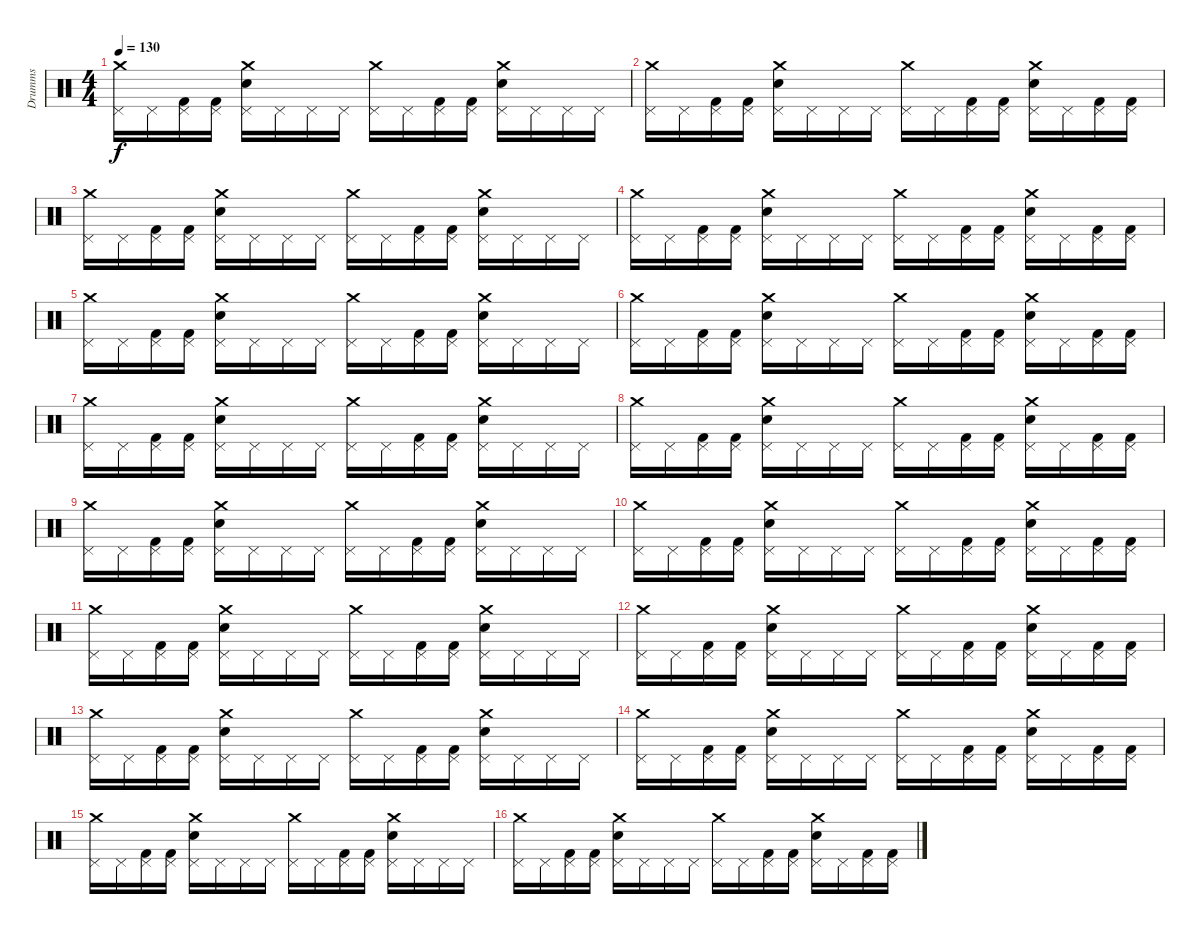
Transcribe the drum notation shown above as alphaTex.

\track ("Drumms" "Drumms") {instrument percussion}
\staff {score}
\articulation defaults
\ts (4 4)
\tempo 130
\clef neutral
\ks c
("Crash medium (hit)" "Pedal Hi-Hat (hit)").16{dy f} "Pedal Hi-Hat (hit)".16 ("Kick (hit) 2" "Pedal Hi-Hat (hit)").16 ("Kick (hit) 2" "Pedal Hi-Hat (hit)").16 ("Crash medium (hit)" "Electric Snare (hit)" "Pedal Hi-Hat (hit)").16 "Pedal Hi-Hat (hit)".16 "Pedal Hi-Hat (hit)".16 "Pedal Hi-Hat (hit)".16 ("Crash medium (hit)" "Pedal Hi-Hat (hit)").16 "Pedal Hi-Hat (hit)".16 ("Kick (hit) 2" "Pedal Hi-Hat (hit)").16 ("Kick (hit) 2" "Pedal Hi-Hat (hit)").16 ("Crash medium (hit)" "Electric Snare (hit)" "Pedal Hi-Hat (hit)").16 "Pedal Hi-Hat (hit)".16 "Pedal Hi-Hat (hit)".16 "Pedal Hi-Hat (hit)".16 |
("Crash medium (hit)" "Pedal Hi-Hat (hit)").16 "Pedal Hi-Hat (hit)".16 ("Kick (hit) 2" "Pedal Hi-Hat (hit)").16 ("Kick (hit) 2" "Pedal Hi-Hat (hit)").16 ("Crash medium (hit)" "Electric Snare (hit)" "Pedal Hi-Hat (hit)").16 "Pedal Hi-Hat (hit)".16 "Pedal Hi-Hat (hit)".16 "Pedal Hi-Hat (hit)".16 ("Crash medium (hit)" "Pedal Hi-Hat (hit)").16 "Pedal Hi-Hat (hit)".16 ("Kick (hit) 2" "Pedal Hi-Hat (hit)").16 ("Kick (hit) 2" "Pedal Hi-Hat (hit)").16 ("Crash medium (hit)" "Electric Snare (hit)" "Pedal Hi-Hat (hit)").16 "Pedal Hi-Hat (hit)".16 ("Kick (hit) 2" "Pedal Hi-Hat (hit)").16 ("Kick (hit) 2" "Pedal Hi-Hat (hit)").16 |
("Crash medium (hit)" "Pedal Hi-Hat (hit)").16 "Pedal Hi-Hat (hit)".16 ("Kick (hit) 2" "Pedal Hi-Hat (hit)").16 ("Kick (hit) 2" "Pedal Hi-Hat (hit)").16 ("Crash medium (hit)" "Electric Snare (hit)" "Pedal Hi-Hat (hit)").16 "Pedal Hi-Hat (hit)".16 "Pedal Hi-Hat (hit)".16 "Pedal Hi-Hat (hit)".16 ("Crash medium (hit)" "Pedal Hi-Hat (hit)").16 "Pedal Hi-Hat (hit)".16 ("Kick (hit) 2" "Pedal Hi-Hat (hit)").16 ("Kick (hit) 2" "Pedal Hi-Hat (hit)").16 ("Crash medium (hit)" "Electric Snare (hit)" "Pedal Hi-Hat (hit)").16 "Pedal Hi-Hat (hit)".16 "Pedal Hi-Hat (hit)".16 "Pedal Hi-Hat (hit)".16 |
("Crash medium (hit)" "Pedal Hi-Hat (hit)").16 "Pedal Hi-Hat (hit)".16 ("Kick (hit) 2" "Pedal Hi-Hat (hit)").16 ("Kick (hit) 2" "Pedal Hi-Hat (hit)").16 ("Crash medium (hit)" "Electric Snare (hit)" "Pedal Hi-Hat (hit)").16 "Pedal Hi-Hat (hit)".16 "Pedal Hi-Hat (hit)".16 "Pedal Hi-Hat (hit)".16 ("Crash medium (hit)" "Pedal Hi-Hat (hit)").16 "Pedal Hi-Hat (hit)".16 ("Kick (hit) 2" "Pedal Hi-Hat (hit)").16 ("Kick (hit) 2" "Pedal Hi-Hat (hit)").16 ("Crash medium (hit)" "Electric Snare (hit)" "Pedal Hi-Hat (hit)").16 "Pedal Hi-Hat (hit)".16 ("Kick (hit) 2" "Pedal Hi-Hat (hit)").16 ("Kick (hit) 2" "Pedal Hi-Hat (hit)").16 |
("Crash medium (hit)" "Pedal Hi-Hat (hit)").16 "Pedal Hi-Hat (hit)".16 ("Kick (hit) 2" "Pedal Hi-Hat (hit)").16 ("Kick (hit) 2" "Pedal Hi-Hat (hit)").16 ("Crash medium (hit)" "Electric Snare (hit)" "Pedal Hi-Hat (hit)").16 "Pedal Hi-Hat (hit)".16 "Pedal Hi-Hat (hit)".16 "Pedal Hi-Hat (hit)".16 ("Crash medium (hit)" "Pedal Hi-Hat (hit)").16 "Pedal Hi-Hat (hit)".16 ("Kick (hit) 2" "Pedal Hi-Hat (hit)").16 ("Kick (hit) 2" "Pedal Hi-Hat (hit)").16 ("Crash medium (hit)" "Electric Snare (hit)" "Pedal Hi-Hat (hit)").16 "Pedal Hi-Hat (hit)".16 "Pedal Hi-Hat (hit)".16 "Pedal Hi-Hat (hit)".16 |
("Crash medium (hit)" "Pedal Hi-Hat (hit)").16 "Pedal Hi-Hat (hit)".16 ("Kick (hit) 2" "Pedal Hi-Hat (hit)").16 ("Kick (hit) 2" "Pedal Hi-Hat (hit)").16 ("Crash medium (hit)" "Electric Snare (hit)" "Pedal Hi-Hat (hit)").16 "Pedal Hi-Hat (hit)".16 "Pedal Hi-Hat (hit)".16 "Pedal Hi-Hat (hit)".16 ("Crash medium (hit)" "Pedal Hi-Hat (hit)").16 "Pedal Hi-Hat (hit)".16 ("Kick (hit) 2" "Pedal Hi-Hat (hit)").16 ("Kick (hit) 2" "Pedal Hi-Hat (hit)").16 ("Crash medium (hit)" "Electric Snare (hit)" "Pedal Hi-Hat (hit)").16 "Pedal Hi-Hat (hit)".16 ("Kick (hit) 2" "Pedal Hi-Hat (hit)").16 ("Kick (hit) 2" "Pedal Hi-Hat (hit)").16 |
("Crash medium (hit)" "Pedal Hi-Hat (hit)").16 "Pedal Hi-Hat (hit)".16 ("Kick (hit) 2" "Pedal Hi-Hat (hit)").16 ("Kick (hit) 2" "Pedal Hi-Hat (hit)").16 ("Crash medium (hit)" "Electric Snare (hit)" "Pedal Hi-Hat (hit)").16 "Pedal Hi-Hat (hit)".16 "Pedal Hi-Hat (hit)".16 "Pedal Hi-Hat (hit)".16 ("Crash medium (hit)" "Pedal Hi-Hat (hit)").16 "Pedal Hi-Hat (hit)".16 ("Kick (hit) 2" "Pedal Hi-Hat (hit)").16 ("Kick (hit) 2" "Pedal Hi-Hat (hit)").16 ("Crash medium (hit)" "Electric Snare (hit)" "Pedal Hi-Hat (hit)").16 "Pedal Hi-Hat (hit)".16 "Pedal Hi-Hat (hit)".16 "Pedal Hi-Hat (hit)".16 |
("Crash medium (hit)" "Pedal Hi-Hat (hit)").16 "Pedal Hi-Hat (hit)".16 ("Kick (hit) 2" "Pedal Hi-Hat (hit)").16 ("Kick (hit) 2" "Pedal Hi-Hat (hit)").16 ("Crash medium (hit)" "Electric Snare (hit)" "Pedal Hi-Hat (hit)").16 "Pedal Hi-Hat (hit)".16 "Pedal Hi-Hat (hit)".16 "Pedal Hi-Hat (hit)".16 ("Crash medium (hit)" "Pedal Hi-Hat (hit)").16 "Pedal Hi-Hat (hit)".16 ("Kick (hit) 2" "Pedal Hi-Hat (hit)").16 ("Kick (hit) 2" "Pedal Hi-Hat (hit)").16 ("Crash medium (hit)" "Electric Snare (hit)" "Pedal Hi-Hat (hit)").16 "Pedal Hi-Hat (hit)".16 ("Kick (hit) 2" "Pedal Hi-Hat (hit)").16 ("Kick (hit) 2" "Pedal Hi-Hat (hit)").16 |
("Crash medium (hit)" "Pedal Hi-Hat (hit)").16 "Pedal Hi-Hat (hit)".16 ("Kick (hit) 2" "Pedal Hi-Hat (hit)").16 ("Kick (hit) 2" "Pedal Hi-Hat (hit)").16 ("Crash medium (hit)" "Electric Snare (hit)" "Pedal Hi-Hat (hit)").16 "Pedal Hi-Hat (hit)".16 "Pedal Hi-Hat (hit)".16 "Pedal Hi-Hat (hit)".16 ("Crash medium (hit)" "Pedal Hi-Hat (hit)").16 "Pedal Hi-Hat (hit)".16 ("Kick (hit) 2" "Pedal Hi-Hat (hit)").16 ("Kick (hit) 2" "Pedal Hi-Hat (hit)").16 ("Crash medium (hit)" "Electric Snare (hit)" "Pedal Hi-Hat (hit)").16 "Pedal Hi-Hat (hit)".16 "Pedal Hi-Hat (hit)".16 "Pedal Hi-Hat (hit)".16 |
("Crash medium (hit)" "Pedal Hi-Hat (hit)").16 "Pedal Hi-Hat (hit)".16 ("Kick (hit) 2" "Pedal Hi-Hat (hit)").16 ("Kick (hit) 2" "Pedal Hi-Hat (hit)").16 ("Crash medium (hit)" "Electric Snare (hit)" "Pedal Hi-Hat (hit)").16 "Pedal Hi-Hat (hit)".16 "Pedal Hi-Hat (hit)".16 "Pedal Hi-Hat (hit)".16 ("Crash medium (hit)" "Pedal Hi-Hat (hit)").16 "Pedal Hi-Hat (hit)".16 ("Kick (hit) 2" "Pedal Hi-Hat (hit)").16 ("Kick (hit) 2" "Pedal Hi-Hat (hit)").16 ("Crash medium (hit)" "Electric Snare (hit)" "Pedal Hi-Hat (hit)").16 "Pedal Hi-Hat (hit)".16 ("Kick (hit) 2" "Pedal Hi-Hat (hit)").16 ("Kick (hit) 2" "Pedal Hi-Hat (hit)").16 |
("Crash medium (hit)" "Pedal Hi-Hat (hit)").16 "Pedal Hi-Hat (hit)".16 ("Kick (hit) 2" "Pedal Hi-Hat (hit)").16 ("Kick (hit) 2" "Pedal Hi-Hat (hit)").16 ("Crash medium (hit)" "Electric Snare (hit)" "Pedal Hi-Hat (hit)").16 "Pedal Hi-Hat (hit)".16 "Pedal Hi-Hat (hit)".16 "Pedal Hi-Hat (hit)".16 ("Crash medium (hit)" "Pedal Hi-Hat (hit)").16 "Pedal Hi-Hat (hit)".16 ("Kick (hit) 2" "Pedal Hi-Hat (hit)").16 ("Kick (hit) 2" "Pedal Hi-Hat (hit)").16 ("Crash medium (hit)" "Electric Snare (hit)" "Pedal Hi-Hat (hit)").16 "Pedal Hi-Hat (hit)".16 "Pedal Hi-Hat (hit)".16 "Pedal Hi-Hat (hit)".16 |
("Crash medium (hit)" "Pedal Hi-Hat (hit)").16 "Pedal Hi-Hat (hit)".16 ("Kick (hit) 2" "Pedal Hi-Hat (hit)").16 ("Kick (hit) 2" "Pedal Hi-Hat (hit)").16 ("Crash medium (hit)" "Electric Snare (hit)" "Pedal Hi-Hat (hit)").16 "Pedal Hi-Hat (hit)".16 "Pedal Hi-Hat (hit)".16 "Pedal Hi-Hat (hit)".16 ("Crash medium (hit)" "Pedal Hi-Hat (hit)").16 "Pedal Hi-Hat (hit)".16 ("Kick (hit) 2" "Pedal Hi-Hat (hit)").16 ("Kick (hit) 2" "Pedal Hi-Hat (hit)").16 ("Crash medium (hit)" "Electric Snare (hit)" "Pedal Hi-Hat (hit)").16 "Pedal Hi-Hat (hit)".16 ("Kick (hit) 2" "Pedal Hi-Hat (hit)").16 ("Kick (hit) 2" "Pedal Hi-Hat (hit)").16 |
("Crash medium (hit)" "Pedal Hi-Hat (hit)").16 "Pedal Hi-Hat (hit)".16 ("Kick (hit) 2" "Pedal Hi-Hat (hit)").16 ("Kick (hit) 2" "Pedal Hi-Hat (hit)").16 ("Crash medium (hit)" "Electric Snare (hit)" "Pedal Hi-Hat (hit)").16 "Pedal Hi-Hat (hit)".16 "Pedal Hi-Hat (hit)".16 "Pedal Hi-Hat (hit)".16 ("Crash medium (hit)" "Pedal Hi-Hat (hit)").16 "Pedal Hi-Hat (hit)".16 ("Kick (hit) 2" "Pedal Hi-Hat (hit)").16 ("Kick (hit) 2" "Pedal Hi-Hat (hit)").16 ("Crash medium (hit)" "Electric Snare (hit)" "Pedal Hi-Hat (hit)").16 "Pedal Hi-Hat (hit)".16 "Pedal Hi-Hat (hit)".16 "Pedal Hi-Hat (hit)".16 |
("Crash medium (hit)" "Pedal Hi-Hat (hit)").16 "Pedal Hi-Hat (hit)".16 ("Kick (hit) 2" "Pedal Hi-Hat (hit)").16 ("Kick (hit) 2" "Pedal Hi-Hat (hit)").16 ("Crash medium (hit)" "Electric Snare (hit)" "Pedal Hi-Hat (hit)").16 "Pedal Hi-Hat (hit)".16 "Pedal Hi-Hat (hit)".16 "Pedal Hi-Hat (hit)".16 ("Crash medium (hit)" "Pedal Hi-Hat (hit)").16 "Pedal Hi-Hat (hit)".16 ("Kick (hit) 2" "Pedal Hi-Hat (hit)").16 ("Kick (hit) 2" "Pedal Hi-Hat (hit)").16 ("Crash medium (hit)" "Electric Snare (hit)" "Pedal Hi-Hat (hit)").16 "Pedal Hi-Hat (hit)".16 ("Kick (hit) 2" "Pedal Hi-Hat (hit)").16 ("Kick (hit) 2" "Pedal Hi-Hat (hit)").16 |
("Crash medium (hit)" "Pedal Hi-Hat (hit)").16 "Pedal Hi-Hat (hit)".16 ("Kick (hit) 2" "Pedal Hi-Hat (hit)").16 ("Kick (hit) 2" "Pedal Hi-Hat (hit)").16 ("Crash medium (hit)" "Electric Snare (hit)" "Pedal Hi-Hat (hit)").16 "Pedal Hi-Hat (hit)".16 "Pedal Hi-Hat (hit)".16 "Pedal Hi-Hat (hit)".16 ("Crash medium (hit)" "Pedal Hi-Hat (hit)").16 "Pedal Hi-Hat (hit)".16 ("Kick (hit) 2" "Pedal Hi-Hat (hit)").16 ("Kick (hit) 2" "Pedal Hi-Hat (hit)").16 ("Crash medium (hit)" "Electric Snare (hit)" "Pedal Hi-Hat (hit)").16 "Pedal Hi-Hat (hit)".16 "Pedal Hi-Hat (hit)".16 "Pedal Hi-Hat (hit)".16 |
("Crash medium (hit)" "Pedal Hi-Hat (hit)").16 "Pedal Hi-Hat (hit)".16 ("Kick (hit) 2" "Pedal Hi-Hat (hit)").16 ("Kick (hit) 2" "Pedal Hi-Hat (hit)").16 ("Crash medium (hit)" "Electric Snare (hit)" "Pedal Hi-Hat (hit)").16 "Pedal Hi-Hat (hit)".16 "Pedal Hi-Hat (hit)".16 "Pedal Hi-Hat (hit)".16 ("Crash medium (hit)" "Pedal Hi-Hat (hit)").16 "Pedal Hi-Hat (hit)".16 ("Kick (hit) 2" "Pedal Hi-Hat (hit)").16 ("Kick (hit) 2" "Pedal Hi-Hat (hit)").16 ("Crash medium (hit)" "Electric Snare (hit)" "Pedal Hi-Hat (hit)").16 "Pedal Hi-Hat (hit)".16 ("Kick (hit) 2" "Pedal Hi-Hat (hit)").16 ("Kick (hit) 2" "Pedal Hi-Hat (hit)").16
